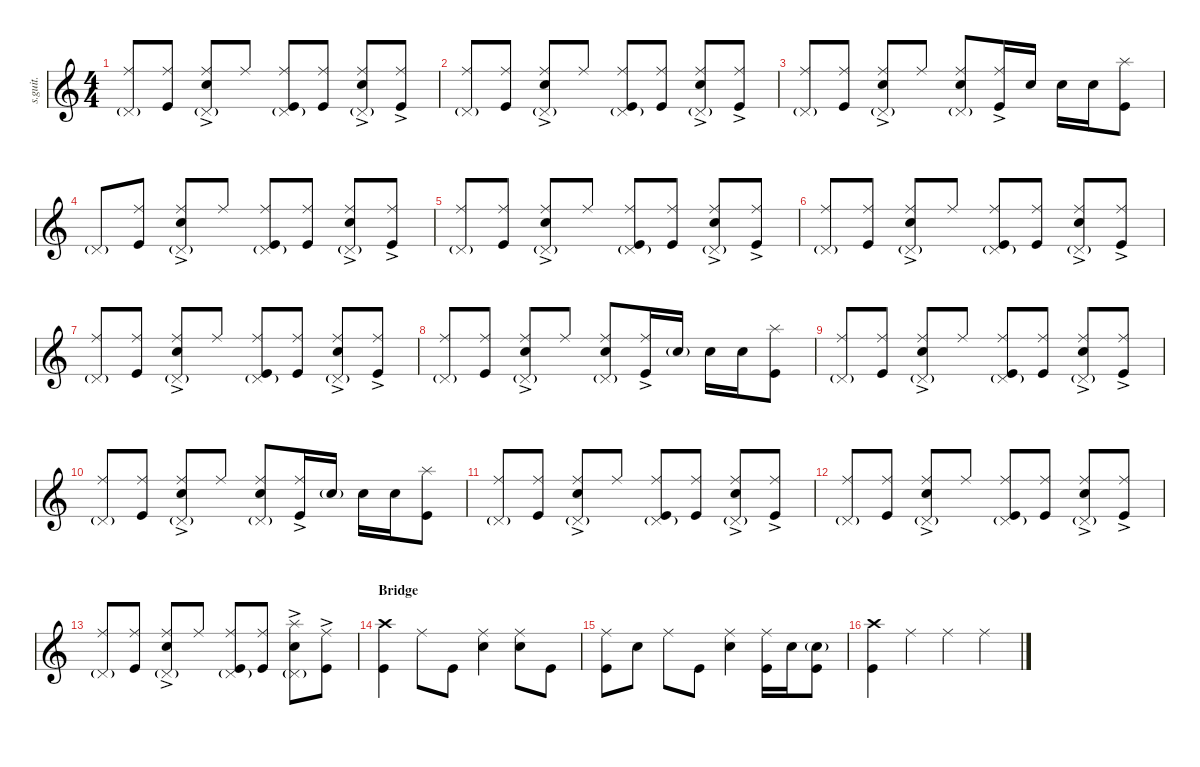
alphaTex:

\defaultSystemsLayout 4
\hideDynamics
\bracketExtendMode nobrackets
\track ("Steve Lamos" "s.guit.") {instrument percussion}
\staff {score}
\articulation defaults
\ts (4 4)
\tempo (144 hide)
\clef g2
\ks c
("Pedal Hi-Hat (hit)"{g} "Ride (middle)").8{lyrics (0 "") lyrics (1 "") lyrics (2 "") lyrics (3 "") lyrics (4 "") dy f} ("Ride (middle)" "Kick (hit)").8{lyrics (0 "") lyrics (1 "") lyrics (2 "") lyrics (3 "") lyrics (4 "")} ("Pedal Hi-Hat (hit)"{g} "Ride (middle)" "Snare (hit) 2"{ac}).8{lyrics (0 "") lyrics (1 "") lyrics (2 "") lyrics (3 "") lyrics (4 "")} "Ride (middle)".8{lyrics (0 "") lyrics (1 "") lyrics (2 "") lyrics (3 "") lyrics (4 "")} ("Pedal Hi-Hat (hit)"{g} "Ride (middle)" "Kick (hit)").8{lyrics (0 "") lyrics (1 "") lyrics (2 "") lyrics (3 "") lyrics (4 "")} ("Ride (middle)" "Kick (hit)").8{lyrics (0 "") lyrics (1 "") lyrics (2 "") lyrics (3 "") lyrics (4 "")} ("Pedal Hi-Hat (hit)"{g} "Ride (middle)" "Snare (hit) 2"{ac}).8{lyrics (0 "") lyrics (1 "") lyrics (2 "") lyrics (3 "") lyrics (4 "")} ("Ride (middle)"{ac} "Kick (hit)").8{lyrics (0 "") lyrics (1 "") lyrics (2 "") lyrics (3 "") lyrics (4 "")} |
("Pedal Hi-Hat (hit)"{g} "Ride (middle)").8{lyrics (0 "") lyrics (1 "") lyrics (2 "") lyrics (3 "") lyrics (4 "")} ("Ride (middle)" "Kick (hit)").8{lyrics (0 "") lyrics (1 "") lyrics (2 "") lyrics (3 "") lyrics (4 "")} ("Pedal Hi-Hat (hit)"{g} "Ride (middle)" "Snare (hit) 2"{ac}).8{lyrics (0 "") lyrics (1 "") lyrics (2 "") lyrics (3 "") lyrics (4 "")} "Ride (middle)".8{lyrics (0 "") lyrics (1 "") lyrics (2 "") lyrics (3 "") lyrics (4 "")} ("Pedal Hi-Hat (hit)"{g} "Ride (middle)" "Kick (hit)").8{lyrics (0 "") lyrics (1 "") lyrics (2 "") lyrics (3 "") lyrics (4 "")} ("Ride (middle)" "Kick (hit)").8{lyrics (0 "") lyrics (1 "") lyrics (2 "") lyrics (3 "") lyrics (4 "")} ("Pedal Hi-Hat (hit)"{g} "Ride (middle)" "Snare (hit) 2"{ac}).8{lyrics (0 "") lyrics (1 "") lyrics (2 "") lyrics (3 "") lyrics (4 "")} ("Ride (middle)"{ac} "Kick (hit)").8{lyrics (0 "") lyrics (1 "") lyrics (2 "") lyrics (3 "") lyrics (4 "")} |
("Pedal Hi-Hat (hit)"{g} "Ride (middle)").8{lyrics (0 "") lyrics (1 "") lyrics (2 "") lyrics (3 "") lyrics (4 "")} ("Ride (middle)" "Kick (hit)").8{lyrics (0 "") lyrics (1 "") lyrics (2 "") lyrics (3 "") lyrics (4 "")} ("Pedal Hi-Hat (hit)"{g} "Ride (middle)" "Snare (hit) 2"{ac}).8{lyrics (0 "") lyrics (1 "") lyrics (2 "") lyrics (3 "") lyrics (4 "")} "Ride (middle)".8{lyrics (0 "") lyrics (1 "") lyrics (2 "") lyrics (3 "") lyrics (4 "")} ("Pedal Hi-Hat (hit)"{g} "Ride (middle)" "Snare (hit) 2").8{lyrics (0 "") lyrics (1 "") lyrics (2 "") lyrics (3 "") lyrics (4 "")} ("Ride (middle)"{ac} "Kick (hit)").16{lyrics (0 "") lyrics (1 "") lyrics (2 "") lyrics (3 "") lyrics (4 "")} "Snare (hit) 2".16{lyrics (0 "") lyrics (1 "") lyrics (2 "") lyrics (3 "") lyrics (4 "")} "Snare (hit) 2".16{lyrics (0 "") lyrics (1 "") lyrics (2 "") lyrics (3 "") lyrics (4 "")} "Snare (hit) 2".16{lyrics (0 "") lyrics (1 "") lyrics (2 "") lyrics (3 "") lyrics (4 "")} ("Splash (hit)" "Kick (hit)").8{lyrics (0 "") lyrics (1 "") lyrics (2 "") lyrics (3 "") lyrics (4 "")} |
"Pedal Hi-Hat (hit)"{g}.8{lyrics (0 "") lyrics (1 "") lyrics (2 "") lyrics (3 "") lyrics (4 "")} ("Ride (middle)" "Kick (hit)").8{lyrics (0 "") lyrics (1 "") lyrics (2 "") lyrics (3 "") lyrics (4 "")} ("Pedal Hi-Hat (hit)"{g} "Ride (middle)" "Snare (hit) 2"{ac}).8{lyrics (0 "") lyrics (1 "") lyrics (2 "") lyrics (3 "") lyrics (4 "")} "Ride (middle)".8{lyrics (0 "") lyrics (1 "") lyrics (2 "") lyrics (3 "") lyrics (4 "")} ("Pedal Hi-Hat (hit)"{g} "Ride (middle)" "Kick (hit)").8{lyrics (0 "") lyrics (1 "") lyrics (2 "") lyrics (3 "") lyrics (4 "")} ("Ride (middle)" "Kick (hit)").8{lyrics (0 "") lyrics (1 "") lyrics (2 "") lyrics (3 "") lyrics (4 "")} ("Pedal Hi-Hat (hit)"{g} "Ride (middle)" "Snare (hit) 2"{ac}).8{lyrics (0 "") lyrics (1 "") lyrics (2 "") lyrics (3 "") lyrics (4 "")} ("Ride (middle)"{ac} "Kick (hit)").8{lyrics (0 "") lyrics (1 "") lyrics (2 "") lyrics (3 "") lyrics (4 "")} |
("Pedal Hi-Hat (hit)"{g} "Ride (middle)").8{lyrics (0 "") lyrics (1 "") lyrics (2 "") lyrics (3 "") lyrics (4 "")} ("Ride (middle)" "Kick (hit)").8{lyrics (0 "") lyrics (1 "") lyrics (2 "") lyrics (3 "") lyrics (4 "")} ("Pedal Hi-Hat (hit)"{g} "Ride (middle)" "Snare (hit) 2"{ac}).8{lyrics (0 "") lyrics (1 "") lyrics (2 "") lyrics (3 "") lyrics (4 "")} "Ride (middle)".8{lyrics (0 "") lyrics (1 "") lyrics (2 "") lyrics (3 "") lyrics (4 "")} ("Pedal Hi-Hat (hit)"{g} "Ride (middle)" "Kick (hit)").8{lyrics (0 "") lyrics (1 "") lyrics (2 "") lyrics (3 "") lyrics (4 "")} ("Ride (middle)" "Kick (hit)").8{lyrics (0 "") lyrics (1 "") lyrics (2 "") lyrics (3 "") lyrics (4 "")} ("Pedal Hi-Hat (hit)"{g} "Ride (middle)" "Snare (hit) 2"{ac}).8{lyrics (0 "") lyrics (1 "") lyrics (2 "") lyrics (3 "") lyrics (4 "")} ("Ride (middle)"{ac} "Kick (hit)").8{lyrics (0 "") lyrics (1 "") lyrics (2 "") lyrics (3 "") lyrics (4 "")} |
("Pedal Hi-Hat (hit)"{g} "Ride (middle)").8{lyrics (0 "") lyrics (1 "") lyrics (2 "") lyrics (3 "") lyrics (4 "")} ("Ride (middle)" "Kick (hit)").8{lyrics (0 "") lyrics (1 "") lyrics (2 "") lyrics (3 "") lyrics (4 "")} ("Pedal Hi-Hat (hit)"{g} "Ride (middle)" "Snare (hit) 2"{ac}).8{lyrics (0 "") lyrics (1 "") lyrics (2 "") lyrics (3 "") lyrics (4 "")} "Ride (middle)".8{lyrics (0 "") lyrics (1 "") lyrics (2 "") lyrics (3 "") lyrics (4 "")} ("Pedal Hi-Hat (hit)"{g} "Ride (middle)" "Kick (hit)").8{lyrics (0 "") lyrics (1 "") lyrics (2 "") lyrics (3 "") lyrics (4 "")} ("Ride (middle)" "Kick (hit)").8{lyrics (0 "") lyrics (1 "") lyrics (2 "") lyrics (3 "") lyrics (4 "")} ("Pedal Hi-Hat (hit)"{g} "Ride (middle)" "Snare (hit) 2"{ac}).8{lyrics (0 "") lyrics (1 "") lyrics (2 "") lyrics (3 "") lyrics (4 "")} ("Ride (middle)"{ac} "Kick (hit)").8{lyrics (0 "") lyrics (1 "") lyrics (2 "") lyrics (3 "") lyrics (4 "")} |
("Pedal Hi-Hat (hit)"{g} "Ride (middle)").8{lyrics (0 "") lyrics (1 "") lyrics (2 "") lyrics (3 "") lyrics (4 "")} ("Ride (middle)" "Kick (hit)").8{lyrics (0 "") lyrics (1 "") lyrics (2 "") lyrics (3 "") lyrics (4 "")} ("Pedal Hi-Hat (hit)"{g} "Ride (middle)" "Snare (hit) 2"{ac}).8{lyrics (0 "") lyrics (1 "") lyrics (2 "") lyrics (3 "") lyrics (4 "")} "Ride (middle)".8{lyrics (0 "") lyrics (1 "") lyrics (2 "") lyrics (3 "") lyrics (4 "")} ("Pedal Hi-Hat (hit)"{g} "Ride (middle)" "Kick (hit)").8{lyrics (0 "") lyrics (1 "") lyrics (2 "") lyrics (3 "") lyrics (4 "")} ("Ride (middle)" "Kick (hit)").8{lyrics (0 "") lyrics (1 "") lyrics (2 "") lyrics (3 "") lyrics (4 "")} ("Pedal Hi-Hat (hit)"{g} "Ride (middle)" "Snare (hit) 2"{ac}).8{lyrics (0 "") lyrics (1 "") lyrics (2 "") lyrics (3 "") lyrics (4 "")} ("Ride (middle)"{ac} "Kick (hit)").8{lyrics (0 "") lyrics (1 "") lyrics (2 "") lyrics (3 "") lyrics (4 "")} |
("Pedal Hi-Hat (hit)"{g} "Ride (middle)").8{lyrics (0 "") lyrics (1 "") lyrics (2 "") lyrics (3 "") lyrics (4 "")} ("Ride (middle)" "Kick (hit)").8{lyrics (0 "") lyrics (1 "") lyrics (2 "") lyrics (3 "") lyrics (4 "")} ("Pedal Hi-Hat (hit)"{g} "Ride (middle)" "Snare (hit) 2"{ac}).8{lyrics (0 "") lyrics (1 "") lyrics (2 "") lyrics (3 "") lyrics (4 "")} "Ride (middle)".8{lyrics (0 "") lyrics (1 "") lyrics (2 "") lyrics (3 "") lyrics (4 "")} ("Pedal Hi-Hat (hit)"{g} "Ride (middle)" "Snare (hit) 2").8{lyrics (0 "") lyrics (1 "") lyrics (2 "") lyrics (3 "") lyrics (4 "")} ("Ride (middle)"{ac} "Kick (hit)").16{lyrics (0 "") lyrics (1 "") lyrics (2 "") lyrics (3 "") lyrics (4 "")} "Snare (hit) 2"{g}.16{lyrics (0 "") lyrics (1 "") lyrics (2 "") lyrics (3 "") lyrics (4 "")} "Snare (hit) 2".16{lyrics (0 "") lyrics (1 "") lyrics (2 "") lyrics (3 "") lyrics (4 "")} "Snare (hit) 2".16{lyrics (0 "") lyrics (1 "") lyrics (2 "") lyrics (3 "") lyrics (4 "")} ("Splash (hit)" "Kick (hit)").8{lyrics (0 "") lyrics (1 "") lyrics (2 "") lyrics (3 "") lyrics (4 "")} |
("Pedal Hi-Hat (hit)"{g} "Ride (middle)").8{lyrics (0 "") lyrics (1 "") lyrics (2 "") lyrics (3 "") lyrics (4 "")} ("Ride (middle)" "Kick (hit)").8{lyrics (0 "") lyrics (1 "") lyrics (2 "") lyrics (3 "") lyrics (4 "")} ("Pedal Hi-Hat (hit)"{g} "Ride (middle)" "Snare (hit) 2"{ac}).8{lyrics (0 "") lyrics (1 "") lyrics (2 "") lyrics (3 "") lyrics (4 "")} "Ride (middle)".8{lyrics (0 "") lyrics (1 "") lyrics (2 "") lyrics (3 "") lyrics (4 "")} ("Pedal Hi-Hat (hit)"{g} "Ride (middle)" "Kick (hit)").8{lyrics (0 "") lyrics (1 "") lyrics (2 "") lyrics (3 "") lyrics (4 "")} ("Ride (middle)" "Kick (hit)").8{lyrics (0 "") lyrics (1 "") lyrics (2 "") lyrics (3 "") lyrics (4 "")} ("Pedal Hi-Hat (hit)"{g} "Ride (middle)" "Snare (hit) 2"{ac}).8{lyrics (0 "") lyrics (1 "") lyrics (2 "") lyrics (3 "") lyrics (4 "")} ("Ride (middle)"{ac} "Kick (hit)").8{lyrics (0 "") lyrics (1 "") lyrics (2 "") lyrics (3 "") lyrics (4 "")} |
("Pedal Hi-Hat (hit)"{g} "Ride (middle)").8{lyrics (0 "") lyrics (1 "") lyrics (2 "") lyrics (3 "") lyrics (4 "")} ("Ride (middle)" "Kick (hit)").8{lyrics (0 "") lyrics (1 "") lyrics (2 "") lyrics (3 "") lyrics (4 "")} ("Pedal Hi-Hat (hit)"{g} "Ride (middle)" "Snare (hit) 2"{ac}).8{lyrics (0 "") lyrics (1 "") lyrics (2 "") lyrics (3 "") lyrics (4 "")} "Ride (middle)".8{lyrics (0 "") lyrics (1 "") lyrics (2 "") lyrics (3 "") lyrics (4 "")} ("Pedal Hi-Hat (hit)"{g} "Ride (middle)" "Snare (hit) 2").8{lyrics (0 "") lyrics (1 "") lyrics (2 "") lyrics (3 "") lyrics (4 "")} ("Ride (middle)"{ac} "Kick (hit)").16{lyrics (0 "") lyrics (1 "") lyrics (2 "") lyrics (3 "") lyrics (4 "")} "Snare (hit) 2"{g}.16{lyrics (0 "") lyrics (1 "") lyrics (2 "") lyrics (3 "") lyrics (4 "")} "Snare (hit) 2".16{lyrics (0 "") lyrics (1 "") lyrics (2 "") lyrics (3 "") lyrics (4 "")} "Snare (hit) 2".16{lyrics (0 "") lyrics (1 "") lyrics (2 "") lyrics (3 "") lyrics (4 "")} ("Splash (hit)" "Kick (hit)").8{lyrics (0 "") lyrics (1 "") lyrics (2 "") lyrics (3 "") lyrics (4 "")} |
("Pedal Hi-Hat (hit)"{g} "Ride (middle)").8{lyrics (0 "") lyrics (1 "") lyrics (2 "") lyrics (3 "") lyrics (4 "")} ("Ride (middle)" "Kick (hit)").8{lyrics (0 "") lyrics (1 "") lyrics (2 "") lyrics (3 "") lyrics (4 "")} ("Pedal Hi-Hat (hit)"{g} "Ride (middle)" "Snare (hit) 2"{ac}).8{lyrics (0 "") lyrics (1 "") lyrics (2 "") lyrics (3 "") lyrics (4 "")} "Ride (middle)".8{lyrics (0 "") lyrics (1 "") lyrics (2 "") lyrics (3 "") lyrics (4 "")} ("Pedal Hi-Hat (hit)"{g} "Ride (middle)" "Kick (hit)").8{lyrics (0 "") lyrics (1 "") lyrics (2 "") lyrics (3 "") lyrics (4 "")} ("Ride (middle)" "Kick (hit)").8{lyrics (0 "") lyrics (1 "") lyrics (2 "") lyrics (3 "") lyrics (4 "")} ("Pedal Hi-Hat (hit)"{g} "Ride (middle)" "Snare (hit) 2"{ac}).8{lyrics (0 "") lyrics (1 "") lyrics (2 "") lyrics (3 "") lyrics (4 "")} ("Ride (middle)"{ac} "Kick (hit)").8{lyrics (0 "") lyrics (1 "") lyrics (2 "") lyrics (3 "") lyrics (4 "")} |
("Pedal Hi-Hat (hit)"{g} "Ride (middle)").8{lyrics (0 "") lyrics (1 "") lyrics (2 "") lyrics (3 "") lyrics (4 "")} ("Ride (middle)" "Kick (hit)").8{lyrics (0 "") lyrics (1 "") lyrics (2 "") lyrics (3 "") lyrics (4 "")} ("Pedal Hi-Hat (hit)"{g} "Ride (middle)" "Snare (hit) 2"{ac}).8{lyrics (0 "") lyrics (1 "") lyrics (2 "") lyrics (3 "") lyrics (4 "")} "Ride (middle)".8{lyrics (0 "") lyrics (1 "") lyrics (2 "") lyrics (3 "") lyrics (4 "")} ("Pedal Hi-Hat (hit)"{g} "Ride (middle)" "Kick (hit)").8{lyrics (0 "") lyrics (1 "") lyrics (2 "") lyrics (3 "") lyrics (4 "")} ("Ride (middle)" "Kick (hit)").8{lyrics (0 "") lyrics (1 "") lyrics (2 "") lyrics (3 "") lyrics (4 "")} ("Pedal Hi-Hat (hit)"{g} "Ride (middle)" "Snare (hit) 2"{ac}).8{lyrics (0 "") lyrics (1 "") lyrics (2 "") lyrics (3 "") lyrics (4 "")} ("Ride (middle)"{ac} "Kick (hit)").8{lyrics (0 "") lyrics (1 "") lyrics (2 "") lyrics (3 "") lyrics (4 "")} |
("Pedal Hi-Hat (hit)"{g} "Ride (middle)").8{lyrics (0 "") lyrics (1 "") lyrics (2 "") lyrics (3 "") lyrics (4 "")} ("Ride (middle)" "Kick (hit)").8{lyrics (0 "") lyrics (1 "") lyrics (2 "") lyrics (3 "") lyrics (4 "")} ("Pedal Hi-Hat (hit)"{g} "Ride (middle)" "Snare (hit) 2"{ac}).8{lyrics (0 "") lyrics (1 "") lyrics (2 "") lyrics (3 "") lyrics (4 "")} "Ride (middle)".8{lyrics (0 "") lyrics (1 "") lyrics (2 "") lyrics (3 "") lyrics (4 "")} ("Pedal Hi-Hat (hit)"{g} "Ride (middle)" "Kick (hit)").8{lyrics (0 "") lyrics (1 "") lyrics (2 "") lyrics (3 "") lyrics (4 "")} ("Ride (middle)" "Kick (hit)").8{lyrics (0 "") lyrics (1 "") lyrics (2 "") lyrics (3 "") lyrics (4 "")} ("Pedal Hi-Hat (hit)"{g} "Splash (hit)" "Snare (hit) 2"{ac}).8{lyrics (0 "") lyrics (1 "") lyrics (2 "") lyrics (3 "") lyrics (4 "")} ("Ride (middle)"{ac} "Kick (hit)").8{lyrics (0 "") lyrics (1 "") lyrics (2 "") lyrics (3 "") lyrics (4 "")} |
\section ("" "Bridge")
("Crash high (hit)" "Kick (hit)").4{lyrics (0 "") lyrics (1 "") lyrics (2 "") lyrics (3 "") lyrics (4 "")} "Ride (middle)".8{lyrics (0 "") lyrics (1 "") lyrics (2 "") lyrics (3 "") lyrics (4 "")} "Kick (hit)".8{lyrics (0 "") lyrics (1 "") lyrics (2 "") lyrics (3 "") lyrics (4 "")} ("Ride (middle)" "Snare (hit) 2").4{lyrics (0 "") lyrics (1 "") lyrics (2 "") lyrics (3 "") lyrics (4 "")} ("Ride (middle)" "Snare (hit) 2").8{lyrics (0 "") lyrics (1 "") lyrics (2 "") lyrics (3 "") lyrics (4 "")} "Kick (hit)".8{lyrics (0 "") lyrics (1 "") lyrics (2 "") lyrics (3 "") lyrics (4 "")} |
("Ride (middle)" "Kick (hit)").8{lyrics (0 "") lyrics (1 "") lyrics (2 "") lyrics (3 "") lyrics (4 "")} "Snare (hit) 2".8{lyrics (0 "") lyrics (1 "") lyrics (2 "") lyrics (3 "") lyrics (4 "")} "Ride (middle)".8{lyrics (0 "") lyrics (1 "") lyrics (2 "") lyrics (3 "") lyrics (4 "")} "Kick (hit)".8{lyrics (0 "") lyrics (1 "") lyrics (2 "") lyrics (3 "") lyrics (4 "")} ("Ride (middle)" "Snare (hit) 2").4{lyrics (0 "") lyrics (1 "") lyrics (2 "") lyrics (3 "") lyrics (4 "")} ("Ride (middle)" "Kick (hit)").16{lyrics (0 "") lyrics (1 "") lyrics (2 "") lyrics (3 "") lyrics (4 "")} "Snare (hit) 2".16{lyrics (0 "") lyrics (1 "") lyrics (2 "") lyrics (3 "") lyrics (4 "")} ("Snare (hit) 2"{g} "Kick (hit)").8{lyrics (0 "") lyrics (1 "") lyrics (2 "") lyrics (3 "") lyrics (4 "")} |
("Crash high (hit)" "Kick (hit)").4{lyrics (0 "") lyrics (1 "") lyrics (2 "") lyrics (3 "") lyrics (4 "")} "Ride (middle)".4{lyrics (0 "") lyrics (1 "") lyrics (2 "") lyrics (3 "") lyrics (4 "")} "Ride (middle)".4{lyrics (0 "") lyrics (1 "") lyrics (2 "") lyrics (3 "") lyrics (4 "")} "Ride (middle)".4{lyrics (0 "") lyrics (1 "") lyrics (2 "") lyrics (3 "") lyrics (4 "") dy ff}
